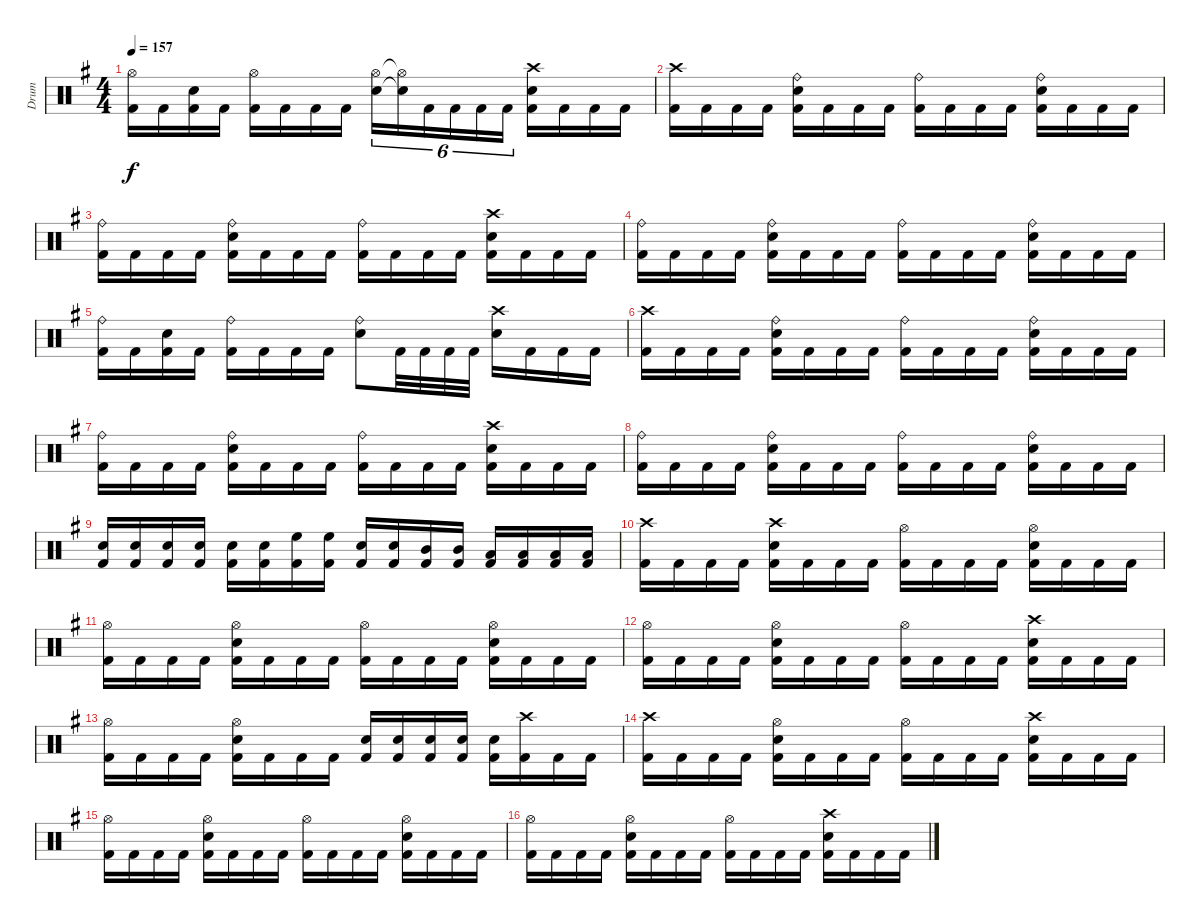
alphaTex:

\track ("Drum" "Drum") {instrument percussion}
\staff {score}
\articulation defaults
\ts (4 4)
\tempo 157
\clef neutral
\ks eminor
("Hi-Hat (open)" "Kick (hit) 2").16{dy f} "Kick (hit) 2".16 ("Snare (hit) 2" "Kick (hit) 2").16 "Kick (hit) 2".16 ("Hi-Hat (open)" "Kick (hit) 2").16 "Kick (hit) 2".16 "Kick (hit) 2".16 "Kick (hit) 2".16 ("Hi-Hat (open)" "Snare (hit) 2").16{tu (6 4)} ("Hi-Hat (open)"{t} "Snare (hit) 2"{t}).16{tu (6 4)} "Kick (hit) 2".16{tu (6 4)} "Kick (hit) 2".16{tu (6 4)} "Kick (hit) 2".16{tu (6 4)} "Kick (hit) 2".16{tu (6 4)} ("Crash high (hit)" "Snare (hit) 2" "Kick (hit) 2").16 "Kick (hit) 2".16 "Kick (hit) 2".16 "Kick (hit) 2".16 |
("Crash high (hit)" "Kick (hit) 2").16 "Kick (hit) 2".16 "Kick (hit) 2".16 "Kick (hit) 2".16 ("Ride (bell)" "Snare (hit) 2" "Kick (hit) 2").16 "Kick (hit) 2".16 "Kick (hit) 2".16 "Kick (hit) 2".16 ("Ride (bell)" "Kick (hit) 2").16 "Kick (hit) 2".16 "Kick (hit) 2".16 "Kick (hit) 2".16 ("Ride (bell)" "Snare (hit) 2" "Kick (hit) 2").16 "Kick (hit) 2".16 "Kick (hit) 2".16 "Kick (hit) 2".16 |
("Ride (bell)" "Kick (hit) 2").16 "Kick (hit) 2".16 "Kick (hit) 2".16 "Kick (hit) 2".16 ("Ride (bell)" "Snare (hit) 2" "Kick (hit) 2").16 "Kick (hit) 2".16 "Kick (hit) 2".16 "Kick (hit) 2".16 ("Ride (bell)" "Kick (hit) 2").16 "Kick (hit) 2".16 "Kick (hit) 2".16 "Kick (hit) 2".16 ("Crash high (hit)" "Snare (hit) 2" "Kick (hit) 2").16 "Kick (hit) 2".16 "Kick (hit) 2".16 "Kick (hit) 2".16 |
("Ride (bell)" "Kick (hit) 2").16 "Kick (hit) 2".16 "Kick (hit) 2".16 "Kick (hit) 2".16 ("Ride (bell)" "Snare (hit) 2" "Kick (hit) 2").16 "Kick (hit) 2".16 "Kick (hit) 2".16 "Kick (hit) 2".16 ("Ride (bell)" "Kick (hit) 2").16 "Kick (hit) 2".16 "Kick (hit) 2".16 "Kick (hit) 2".16 ("Ride (bell)" "Snare (hit) 2" "Kick (hit) 2").16 "Kick (hit) 2".16 "Kick (hit) 2".16 "Kick (hit) 2".16 |
("Ride (bell)" "Kick (hit) 2").16 "Kick (hit) 2".16 ("Snare (hit) 2" "Kick (hit) 2").16 "Kick (hit) 2".16 ("Ride (bell)" "Kick (hit) 2").16 "Kick (hit) 2".16 "Kick (hit) 2".16 "Kick (hit) 2".16 ("Ride (bell)" "Snare (hit) 2").8 "Kick (hit) 2".32 "Kick (hit) 2".32 "Kick (hit) 2".32 "Kick (hit) 2".32 ("Crash high (hit)" "Snare (hit) 2").16 "Kick (hit) 2".16 "Kick (hit) 2".16 "Kick (hit) 2".16 |
("Crash high (hit)" "Kick (hit) 2").16 "Kick (hit) 2".16 "Kick (hit) 2".16 "Kick (hit) 2".16 ("Ride (bell)" "Snare (hit) 2" "Kick (hit) 2").16 "Kick (hit) 2".16 "Kick (hit) 2".16 "Kick (hit) 2".16 ("Ride (bell)" "Kick (hit) 2").16 "Kick (hit) 2".16 "Kick (hit) 2".16 "Kick (hit) 2".16 ("Ride (bell)" "Snare (hit) 2" "Kick (hit) 2").16 "Kick (hit) 2".16 "Kick (hit) 2".16 "Kick (hit) 2".16 |
("Ride (bell)" "Kick (hit) 2").16 "Kick (hit) 2".16 "Kick (hit) 2".16 "Kick (hit) 2".16 ("Ride (bell)" "Snare (hit) 2" "Kick (hit) 2").16 "Kick (hit) 2".16 "Kick (hit) 2".16 "Kick (hit) 2".16 ("Ride (bell)" "Kick (hit) 2").16 "Kick (hit) 2".16 "Kick (hit) 2".16 "Kick (hit) 2".16 ("Crash high (hit)" "Snare (hit) 2" "Kick (hit) 2").16 "Kick (hit) 2".16 "Kick (hit) 2".16 "Kick (hit) 2".16 |
("Ride (bell)" "Kick (hit) 2").16 "Kick (hit) 2".16 "Kick (hit) 2".16 "Kick (hit) 2".16 ("Ride (bell)" "Snare (hit) 2" "Kick (hit) 2").16 "Kick (hit) 2".16 "Kick (hit) 2".16 "Kick (hit) 2".16 ("Ride (bell)" "Kick (hit) 2").16 "Kick (hit) 2".16 "Kick (hit) 2".16 "Kick (hit) 2".16 ("Ride (bell)" "Snare (hit) 2" "Kick (hit) 2").16 "Kick (hit) 2".16 "Kick (hit) 2".16 "Kick (hit) 2".16 |
("Snare (hit) 2" "Kick (hit) 2").16 ("Snare (hit) 2" "Kick (hit) 2").16 ("Snare (hit) 2" "Kick (hit) 2").16 ("Snare (hit) 2" "Kick (hit) 2").16 ("Snare (hit) 2" "Kick (hit) 2").16 ("Snare (hit) 2" "Kick (hit) 2").16 ("High Floor Tom (hit)" "Kick (hit) 2").16 ("High Floor Tom (hit)" "Kick (hit) 2").16 ("Snare (hit) 2" "Kick (hit) 2").16 ("Snare (hit) 2" "Kick (hit) 2").16 ("Mid Tom (hit)" "Kick (hit) 2").16 ("Mid Tom (hit)" "Kick (hit) 2").16 ("Low Tom (hit)" "Kick (hit) 2").16 ("Low Tom (hit)" "Kick (hit) 2").16 ("Low Tom (hit)" "Kick (hit) 2").16 ("Low Tom (hit)" "Kick (hit) 2").16 |
("Crash high (hit)" "Kick (hit) 2").16 "Kick (hit) 2".16 "Kick (hit) 2".16 "Kick (hit) 2".16 ("Crash high (hit)" "Snare (hit) 2" "Kick (hit) 2").16 "Kick (hit) 2".16 "Kick (hit) 2".16 "Kick (hit) 2".16 ("Hi-Hat (open)" "Kick (hit) 2").16 "Kick (hit) 2".16 "Kick (hit) 2".16 "Kick (hit) 2".16 ("Hi-Hat (open)" "Snare (hit) 2" "Kick (hit) 2").16 "Kick (hit) 2".16 "Kick (hit) 2".16 "Kick (hit) 2".16 |
("Hi-Hat (open)" "Kick (hit) 2").16 "Kick (hit) 2".16 "Kick (hit) 2".16 "Kick (hit) 2".16 ("Hi-Hat (open)" "Snare (hit) 2" "Kick (hit) 2").16 "Kick (hit) 2".16 "Kick (hit) 2".16 "Kick (hit) 2".16 ("Hi-Hat (open)" "Kick (hit) 2").16 "Kick (hit) 2".16 "Kick (hit) 2".16 "Kick (hit) 2".16 ("Hi-Hat (open)" "Snare (hit) 2" "Kick (hit) 2").16 "Kick (hit) 2".16 "Kick (hit) 2".16 "Kick (hit) 2".16 |
("Hi-Hat (open)" "Kick (hit) 2").16 "Kick (hit) 2".16 "Kick (hit) 2".16 "Kick (hit) 2".16 ("Hi-Hat (open)" "Snare (hit) 2" "Kick (hit) 2").16 "Kick (hit) 2".16 "Kick (hit) 2".16 "Kick (hit) 2".16 ("Hi-Hat (open)" "Kick (hit) 2").16 "Kick (hit) 2".16 "Kick (hit) 2".16 "Kick (hit) 2".16 ("Crash high (hit)" "Snare (hit) 2" "Kick (hit) 2").16 "Kick (hit) 2".16 "Kick (hit) 2".16 "Kick (hit) 2".16 |
("Hi-Hat (open)" "Kick (hit) 2").16 "Kick (hit) 2".16 "Kick (hit) 2".16 "Kick (hit) 2".16 ("Hi-Hat (open)" "Snare (hit) 2" "Kick (hit) 2").16 "Kick (hit) 2".16 "Kick (hit) 2".16 "Kick (hit) 2".16 ("Snare (hit) 2" "Kick (hit) 2").16 ("Snare (hit) 2" "Kick (hit) 2").16 ("Snare (hit) 2" "Kick (hit) 2").16 ("Snare (hit) 2" "Kick (hit) 2").16 ("Snare (hit) 2" "Kick (hit) 2").16 ("Crash high (hit)" "Kick (hit) 2").16 "Kick (hit) 2".16 "Kick (hit) 2".16 |
("Crash high (hit)" "Kick (hit) 2").16 "Kick (hit) 2".16 "Kick (hit) 2".16 "Kick (hit) 2".16 ("Hi-Hat (open)" "Snare (hit) 2" "Kick (hit) 2").16 "Kick (hit) 2".16 "Kick (hit) 2".16 "Kick (hit) 2".16 ("Hi-Hat (open)" "Kick (hit) 2").16 "Kick (hit) 2".16 "Kick (hit) 2".16 "Kick (hit) 2".16 ("Crash high (hit)" "Snare (hit) 2" "Kick (hit) 2").16 "Kick (hit) 2".16 "Kick (hit) 2".16 "Kick (hit) 2".16 |
("Hi-Hat (open)" "Kick (hit) 2").16 "Kick (hit) 2".16 "Kick (hit) 2".16 "Kick (hit) 2".16 ("Hi-Hat (open)" "Snare (hit) 2" "Kick (hit) 2").16 "Kick (hit) 2".16 "Kick (hit) 2".16 "Kick (hit) 2".16 ("Hi-Hat (open)" "Kick (hit) 2").16 "Kick (hit) 2".16 "Kick (hit) 2".16 "Kick (hit) 2".16 ("Hi-Hat (open)" "Snare (hit) 2" "Kick (hit) 2").16 "Kick (hit) 2".16 "Kick (hit) 2".16 "Kick (hit) 2".16 |
("Hi-Hat (open)" "Kick (hit) 2").16 "Kick (hit) 2".16 "Kick (hit) 2".16 "Kick (hit) 2".16 ("Hi-Hat (open)" "Snare (hit) 2" "Kick (hit) 2").16 "Kick (hit) 2".16 "Kick (hit) 2".16 "Kick (hit) 2".16 ("Hi-Hat (open)" "Kick (hit) 2").16 "Kick (hit) 2".16 "Kick (hit) 2".16 "Kick (hit) 2".16 ("Crash high (hit)" "Snare (hit) 2" "Kick (hit) 2").16 "Kick (hit) 2".16 "Kick (hit) 2".16 "Kick (hit) 2".16
